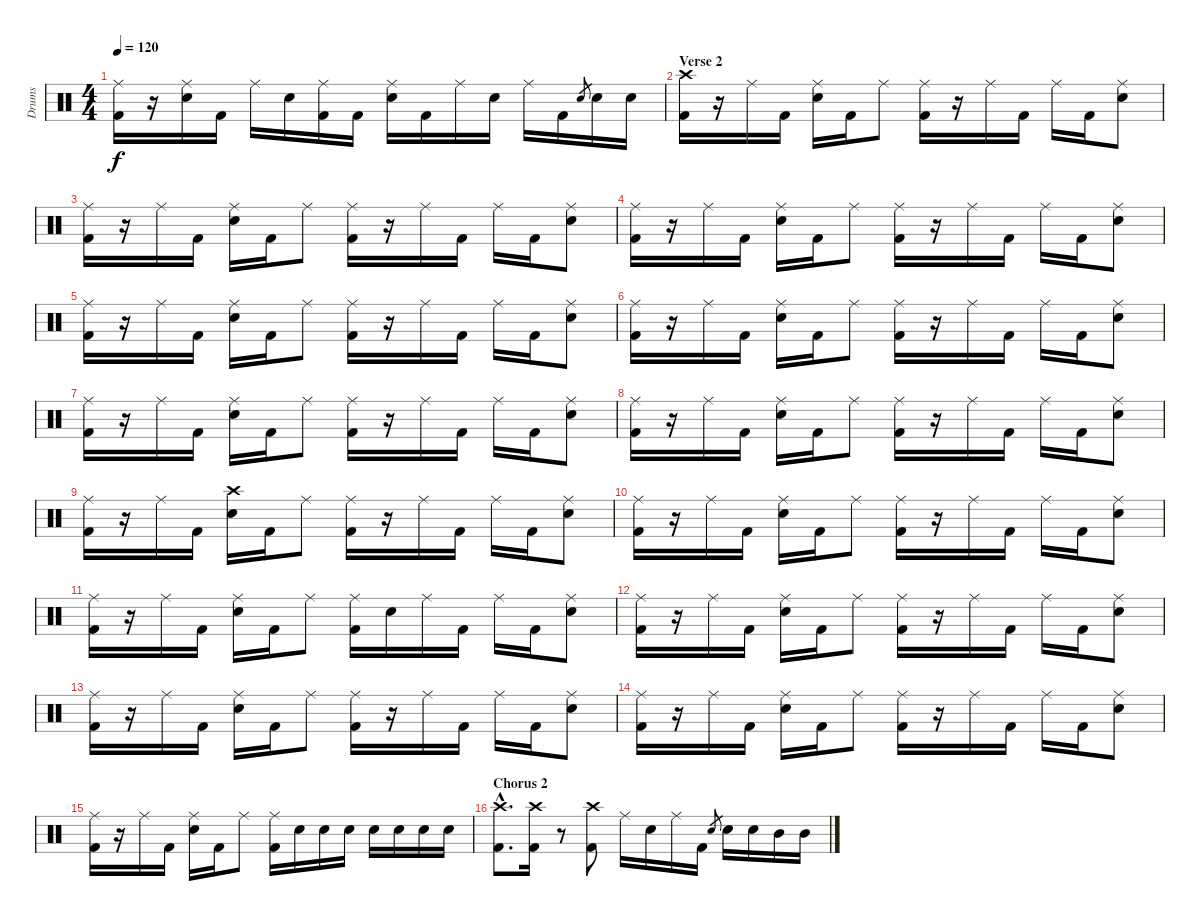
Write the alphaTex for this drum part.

\track ("Drums" "Drums") {instrument percussion}
\staff {score}
\articulation defaults
\ts (4 4)
\tempo 120
\clef neutral
\ks c
("Ride (middle)" "Kick (hit) 2").16{dy f} r.16 ("Ride (middle)" "Electric Snare (hit)").16 "Kick (hit) 2".16 "Ride (middle)".16 "Electric Snare (hit)".16 ("Ride (middle)" "Kick (hit) 2").16 "Kick (hit) 2".16 ("Ride (middle)" "Electric Snare (hit)").16 "Kick (hit) 2".16 "Ride (middle)".16 "Electric Snare (hit)".16 "Ride (middle)".16 "Kick (hit) 2".16 "Electric Snare (hit)".8{gr} "Electric Snare (hit)".16 "Electric Snare (hit)".16 |
\section ("" "Verse 2")
("Crash high (hit)" "Kick (hit) 2").16 r.16 "Ride (middle)".16 "Kick (hit) 2".16 ("Ride (middle)" "Electric Snare (hit)").16 "Kick (hit) 2".16 "Ride (middle)".8 ("Ride (middle)" "Kick (hit) 2").16 r.16 "Ride (middle)".16 "Kick (hit) 2".16 "Ride (middle)".16 "Kick (hit) 2".16 ("Ride (middle)" "Electric Snare (hit)").8 |
("Ride (middle)" "Kick (hit) 2").16 r.16 "Ride (middle)".16 "Kick (hit) 2".16 ("Ride (middle)" "Electric Snare (hit)").16 "Kick (hit) 2".16 "Ride (middle)".8 ("Ride (middle)" "Kick (hit) 2").16 r.16 "Ride (middle)".16 "Kick (hit) 2".16 "Ride (middle)".16 "Kick (hit) 2".16 ("Ride (middle)" "Electric Snare (hit)").8 |
("Ride (middle)" "Kick (hit) 2").16 r.16 "Ride (middle)".16 "Kick (hit) 2".16 ("Ride (middle)" "Electric Snare (hit)").16 "Kick (hit) 2".16 "Ride (middle)".8 ("Ride (middle)" "Kick (hit) 2").16 r.16 "Ride (middle)".16 "Kick (hit) 2".16 "Ride (middle)".16 "Kick (hit) 2".16 ("Ride (middle)" "Electric Snare (hit)").8 |
("Ride (middle)" "Kick (hit) 2").16 r.16 "Ride (middle)".16 "Kick (hit) 2".16 ("Ride (middle)" "Electric Snare (hit)").16 "Kick (hit) 2".16 "Ride (middle)".8 ("Ride (middle)" "Kick (hit) 2").16 r.16 "Ride (middle)".16 "Kick (hit) 2".16 "Ride (middle)".16 "Kick (hit) 2".16 ("Ride (middle)" "Electric Snare (hit)").8 |
("Ride (middle)" "Kick (hit) 2").16 r.16 "Ride (middle)".16 "Kick (hit) 2".16 ("Ride (middle)" "Electric Snare (hit)").16 "Kick (hit) 2".16 "Ride (middle)".8 ("Ride (middle)" "Kick (hit) 2").16 r.16 "Ride (middle)".16 "Kick (hit) 2".16 "Ride (middle)".16 "Kick (hit) 2".16 ("Ride (middle)" "Electric Snare (hit)").8 |
("Ride (middle)" "Kick (hit) 2").16 r.16 "Ride (middle)".16 "Kick (hit) 2".16 ("Ride (middle)" "Electric Snare (hit)").16 "Kick (hit) 2".16 "Ride (middle)".8 ("Ride (middle)" "Kick (hit) 2").16 r.16 "Ride (middle)".16 "Kick (hit) 2".16 "Ride (middle)".16 "Kick (hit) 2".16 ("Ride (middle)" "Electric Snare (hit)").8 |
("Ride (middle)" "Kick (hit) 2").16 r.16 "Ride (middle)".16 "Kick (hit) 2".16 ("Ride (middle)" "Electric Snare (hit)").16 "Kick (hit) 2".16 "Ride (middle)".8 ("Ride (middle)" "Kick (hit) 2").16 r.16 "Ride (middle)".16 "Kick (hit) 2".16 "Ride (middle)".16 "Kick (hit) 2".16 ("Ride (middle)" "Electric Snare (hit)").8 |
("Ride (middle)" "Kick (hit) 2").16 r.16 "Ride (middle)".16 "Kick (hit) 2".16 ("Crash high (hit)" "Electric Snare (hit)").16 "Kick (hit) 2".16 "Ride (middle)".8 ("Ride (middle)" "Kick (hit) 2").16 r.16 "Ride (middle)".16 "Kick (hit) 2".16 "Ride (middle)".16 "Kick (hit) 2".16 ("Ride (middle)" "Electric Snare (hit)").8 |
("Ride (middle)" "Kick (hit) 2").16 r.16 "Ride (middle)".16 "Kick (hit) 2".16 ("Ride (middle)" "Electric Snare (hit)").16 "Kick (hit) 2".16 "Ride (middle)".8 ("Ride (middle)" "Kick (hit) 2").16 r.16 "Ride (middle)".16 "Kick (hit) 2".16 "Ride (middle)".16 "Kick (hit) 2".16 ("Ride (middle)" "Electric Snare (hit)").8 |
("Ride (middle)" "Kick (hit) 2").16 r.16 "Ride (middle)".16 "Kick (hit) 2".16 ("Ride (middle)" "Electric Snare (hit)").16 "Kick (hit) 2".16 "Ride (middle)".8 ("Ride (middle)" "Kick (hit) 2").16 "Electric Snare (hit)".16 "Ride (middle)".16 "Kick (hit) 2".16 "Ride (middle)".16 "Kick (hit) 2".16 ("Ride (middle)" "Electric Snare (hit)").8 |
("Ride (middle)" "Kick (hit) 2").16 r.16 "Ride (middle)".16 "Kick (hit) 2".16 ("Ride (middle)" "Electric Snare (hit)").16 "Kick (hit) 2".16 "Ride (middle)".8 ("Ride (middle)" "Kick (hit) 2").16 r.16 "Ride (middle)".16 "Kick (hit) 2".16 "Ride (middle)".16 "Kick (hit) 2".16 ("Ride (middle)" "Electric Snare (hit)").8 |
("Ride (middle)" "Kick (hit) 2").16 r.16 "Ride (middle)".16 "Kick (hit) 2".16 ("Ride (middle)" "Electric Snare (hit)").16 "Kick (hit) 2".16 "Ride (middle)".8 ("Ride (middle)" "Kick (hit) 2").16 r.16 "Ride (middle)".16 "Kick (hit) 2".16 "Ride (middle)".16 "Kick (hit) 2".16 ("Ride (middle)" "Electric Snare (hit)").8 |
("Ride (middle)" "Kick (hit) 2").16 r.16 "Ride (middle)".16 "Kick (hit) 2".16 ("Ride (middle)" "Electric Snare (hit)").16 "Kick (hit) 2".16 "Ride (middle)".8 ("Ride (middle)" "Kick (hit) 2").16 r.16 "Ride (middle)".16 "Kick (hit) 2".16 "Ride (middle)".16 "Kick (hit) 2".16 ("Ride (middle)" "Electric Snare (hit)").8 |
("Ride (middle)" "Kick (hit) 2").16 r.16 "Ride (middle)".16 "Kick (hit) 2".16 ("Ride (middle)" "Electric Snare (hit)").16 "Kick (hit) 2".16 "Ride (middle)".8 ("Ride (middle)" "Kick (hit) 2").16 "Electric Snare (hit)".16 "Electric Snare (hit)".16 "Electric Snare (hit)".16 "Electric Snare (hit)".16 "Electric Snare (hit)".16 "Electric Snare (hit)".16 "Electric Snare (hit)".16 |
\section ("" "Chorus 2")
("Crash high (hit)"{hac} "Kick (hit) 2"{hac}).8{d} ("Crash high (hit)" "Kick (hit) 2").16 r.8 ("Crash high (hit)" "Kick (hit) 2").8 "Ride (middle)".16 "Electric Snare (hit)".16 "Ride (middle)".16 "Kick (hit) 2".16 "Electric Snare (hit)".8{gr} "Electric Snare (hit)".16 "Electric Snare (hit)".16 "Mid Tom (hit)".16 "Mid Tom (hit)".16
